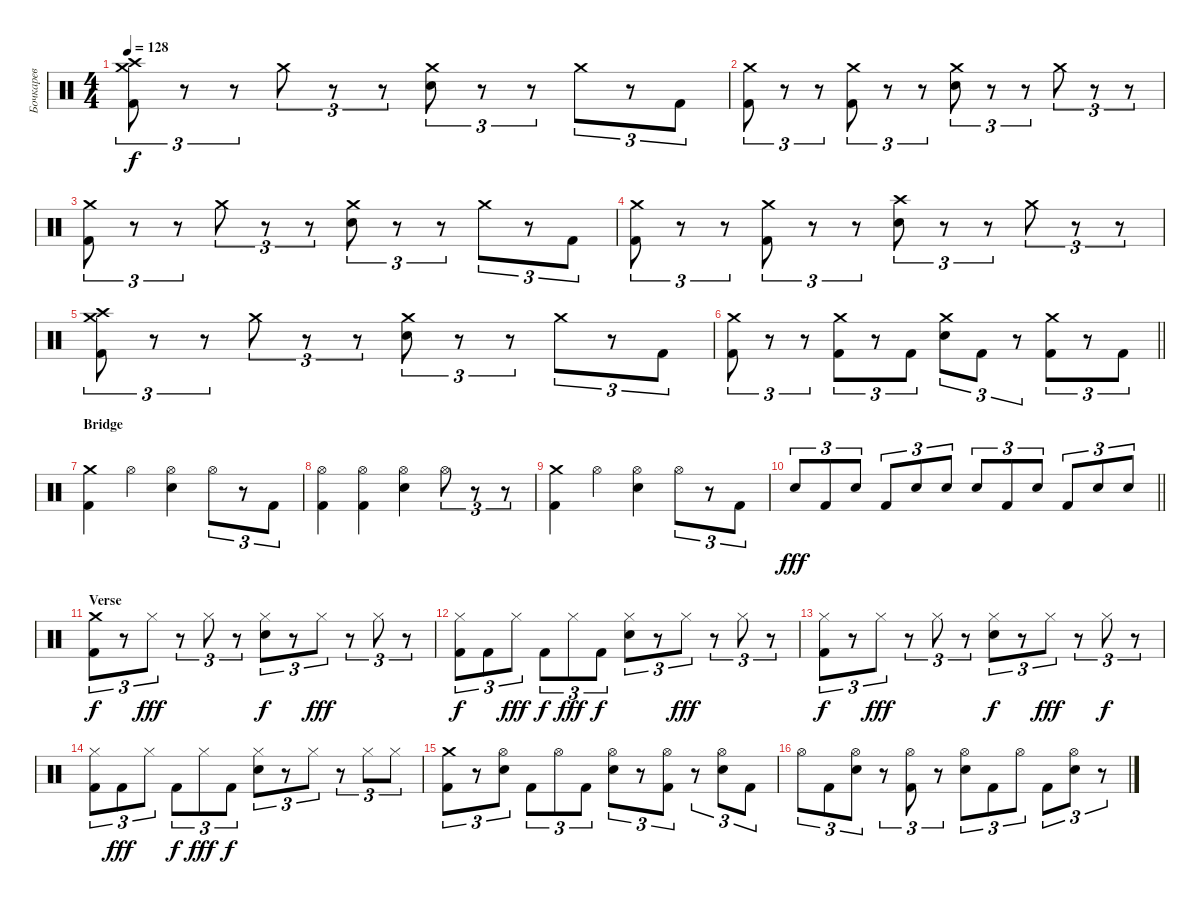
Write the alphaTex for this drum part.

\track ("Бочкарев" "Бочкарев") {instrument percussion}
\staff
\articulation defaults
\ts (4 4)
\tempo 128
\clef neutral
\ks c
("Crash high (hit)" "Crash medium (hit)" "Kick (hit) 2").8{tu (3 2) dy f} r.8{tu (3 2)} r.8{tu (3 2)} "Crash medium (hit)".8{tu (3 2)} r.8{tu (3 2)} r.8{tu (3 2)} ("Crash medium (hit)" "Electric Snare (hit)").8{tu (3 2)} r.8{tu (3 2)} r.8{tu (3 2)} "Crash medium (hit)".8{tu (3 2)} r.8{tu (3 2)} "Kick (hit) 2".8{tu (3 2)} |
("Crash medium (hit)" "Kick (hit) 2").8{tu (3 2)} r.8{tu (3 2)} r.8{tu (3 2)} ("Crash medium (hit)" "Kick (hit) 2").8{tu (3 2)} r.8{tu (3 2)} r.8{tu (3 2)} ("Crash medium (hit)" "Electric Snare (hit)").8{tu (3 2)} r.8{tu (3 2)} r.8{tu (3 2)} "Crash medium (hit)".8{tu (3 2)} r.8{tu (3 2)} r.8{tu (3 2)} |
("Crash medium (hit)" "Kick (hit) 2").8{tu (3 2)} r.8{tu (3 2)} r.8{tu (3 2)} "Crash medium (hit)".8{tu (3 2)} r.8{tu (3 2)} r.8{tu (3 2)} ("Crash medium (hit)" "Electric Snare (hit)").8{tu (3 2)} r.8{tu (3 2)} r.8{tu (3 2)} "Crash medium (hit)".8{tu (3 2)} r.8{tu (3 2)} "Kick (hit) 2".8{tu (3 2)} |
("Crash medium (hit)" "Kick (hit) 2").8{tu (3 2)} r.8{tu (3 2)} r.8{tu (3 2)} ("Crash medium (hit)" "Kick (hit) 2").8{tu (3 2)} r.8{tu (3 2)} r.8{tu (3 2)} ("Crash high (hit)" "Electric Snare (hit)").8{tu (3 2)} r.8{tu (3 2)} r.8{tu (3 2)} "Crash medium (hit)".8{tu (3 2)} r.8{tu (3 2)} r.8{tu (3 2)} |
("Crash high (hit)" "Crash medium (hit)" "Kick (hit) 2").8{tu (3 2)} r.8{tu (3 2)} r.8{tu (3 2)} "Crash medium (hit)".8{tu (3 2)} r.8{tu (3 2)} r.8{tu (3 2)} ("Crash medium (hit)" "Electric Snare (hit)").8{tu (3 2)} r.8{tu (3 2)} r.8{tu (3 2)} "Crash medium (hit)".8{tu (3 2)} r.8{tu (3 2)} "Kick (hit) 2".8{tu (3 2)} |
\barLineRight lightlight
("Crash medium (hit)" "Kick (hit) 2").8{tu (3 2)} r.8{tu (3 2)} r.8{tu (3 2)} ("Crash medium (hit)" "Kick (hit) 2").8{tu (3 2)} r.8{tu (3 2)} "Kick (hit) 2".8{tu (3 2)} ("Crash medium (hit)" "Electric Snare (hit)").8{tu (3 2)} "Kick (hit) 2".8{tu (3 2)} r.8{tu (3 2)} ("Crash medium (hit)" "Kick (hit) 2").8{tu (3 2)} r.8{tu (3 2)} "Kick (hit) 2".8{tu (3 2)} |
\section ("" "Bridge")
("Crash medium (hit)" "Kick (hit) 2").4 "Hi-Hat (open)".4 ("Hi-Hat (open)" "Electric Snare (hit)").4 "Hi-Hat (open)".8{tu (3 2)} r.8{tu (3 2)} "Kick (hit) 2".8{tu (3 2)} |
("Hi-Hat (open)" "Kick (hit) 2").4 ("Hi-Hat (open)" "Kick (hit) 2").4 ("Hi-Hat (open)" "Electric Snare (hit)").4 "Hi-Hat (open)".8{tu (3 2)} r.8{tu (3 2)} r.8{tu (3 2)} |
("Crash medium (hit)" "Kick (hit) 2").4 "Hi-Hat (open)".4 ("Hi-Hat (open)" "Electric Snare (hit)").4 "Hi-Hat (open)".8{tu (3 2)} r.8{tu (3 2)} "Kick (hit) 2".8{tu (3 2)} |
\barLineRight lightlight "Electric Snare (hit)".8{tu (3 2) dy fff} "Kick (hit) 2".8{tu (3 2)} "Electric Snare (hit)".8{tu (3 2)} "Kick (hit) 2".8{tu (3 2)} "Electric Snare (hit)".8{tu (3 2)} "Electric Snare (hit)".8{tu (3 2)} "Electric Snare (hit)".8{tu (3 2)} "Kick (hit) 2".8{tu (3 2)} "Electric Snare (hit)".8{tu (3 2)} "Kick (hit) 2".8{tu (3 2)} "Electric Snare (hit)".8{tu (3 2)} "Electric Snare (hit)".8{tu (3 2)}
|
\section ("" "Verse")
("Crash medium (hit)" "Kick (hit) 2").8{tu (3 2) dy f} r.8{tu (3 2)} "Hi-Hat (closed)".8{tu (3 2) dy fff} r.8{tu (3 2)} "Hi-Hat (closed)".8{tu (3 2)} r.8{tu (3 2)} ("Hi-Hat (closed)" "Electric Snare (hit)").8{tu (3 2) dy f} r.8{tu (3 2)} "Hi-Hat (closed)".8{tu (3 2) dy fff} r.8{tu (3 2)} "Hi-Hat (closed)".8{tu (3 2)} r.8{tu (3 2)} |
("Hi-Hat (closed)" "Kick (hit) 2").8{tu (3 2) dy f} "Kick (hit) 2".8{tu (3 2)} "Hi-Hat (closed)".8{tu (3 2) dy fff} "Kick (hit) 2".8{tu (3 2) dy f} "Hi-Hat (closed)".8{tu (3 2) dy fff} "Kick (hit) 2".8{tu (3 2) dy f} ("Hi-Hat (closed)" "Electric Snare (hit)").8{tu (3 2)} r.8{tu (3 2)} "Hi-Hat (closed)".8{tu (3 2) dy fff} r.8{tu (3 2)} "Hi-Hat (closed)".8{tu (3 2)} r.8{tu (3 2)} |
("Hi-Hat (closed)" "Kick (hit) 2").8{tu (3 2) dy f} r.8{tu (3 2)} "Hi-Hat (closed)".8{tu (3 2) dy fff} r.8{tu (3 2)} "Hi-Hat (closed)".8{tu (3 2)} r.8{tu (3 2)} ("Hi-Hat (closed)" "Electric Snare (hit)").8{tu (3 2) dy f} r.8{tu (3 2)} "Hi-Hat (closed)".8{tu (3 2) dy fff} r.8{tu (3 2)} "Hi-Hat (closed)".8{tu (3 2) dy f} r.8{tu (3 2)} |
("Hi-Hat (closed)" "Kick (hit) 2").8{tu (3 2)} "Kick (hit) 2".8{tu (3 2) dy fff} "Hi-Hat (closed)".8{tu (3 2)} "Kick (hit) 2".8{tu (3 2) dy f} "Hi-Hat (closed)".8{tu (3 2) dy fff} "Kick (hit) 2".8{tu (3 2) dy f} ("Hi-Hat (closed)" "Electric Snare (hit)").8{tu (3 2)} r.8{tu (3 2)} "Hi-Hat (closed)".8{tu (3 2)} r.8{tu (3 2)} "Hi-Hat (closed)".8{tu (3 2)} "Hi-Hat (closed)".8{tu (3 2)} |
("Crash medium (hit)" "Kick (hit) 2").8{tu (3 2)} r.8{tu (3 2)} ("Hi-Hat (open)" "Electric Snare (hit)").8{tu (3 2)} "Kick (hit) 2".8{tu (3 2)} "Hi-Hat (open)".8{tu (3 2)} "Kick (hit) 2".8{tu (3 2)} ("Hi-Hat (open)" "Electric Snare (hit)").8{tu (3 2)} r.8{tu (3 2)} ("Hi-Hat (open)" "Kick (hit) 2").8{tu (3 2)} r.8{tu (3 2)} ("Hi-Hat (open)" "Electric Snare (hit)").8{tu (3 2)} "Kick (hit) 2".8{tu (3 2)} |
"Hi-Hat (open)".8{tu (3 2)} "Kick (hit) 2".8{tu (3 2)} ("Hi-Hat (open)" "Electric Snare (hit)").8{tu (3 2)} r.8{tu (3 2)} ("Hi-Hat (open)" "Kick (hit) 2").8{tu (3 2)} r.8{tu (3 2)} ("Hi-Hat (open)" "Electric Snare (hit)").8{tu (3 2)} "Kick (hit) 2".8{tu (3 2)} "Hi-Hat (open)".8{tu (3 2)} "Kick (hit) 2".8{tu (3 2)} ("Hi-Hat (open)" "Electric Snare (hit)").8{tu (3 2)} r.8{tu (3 2)}
